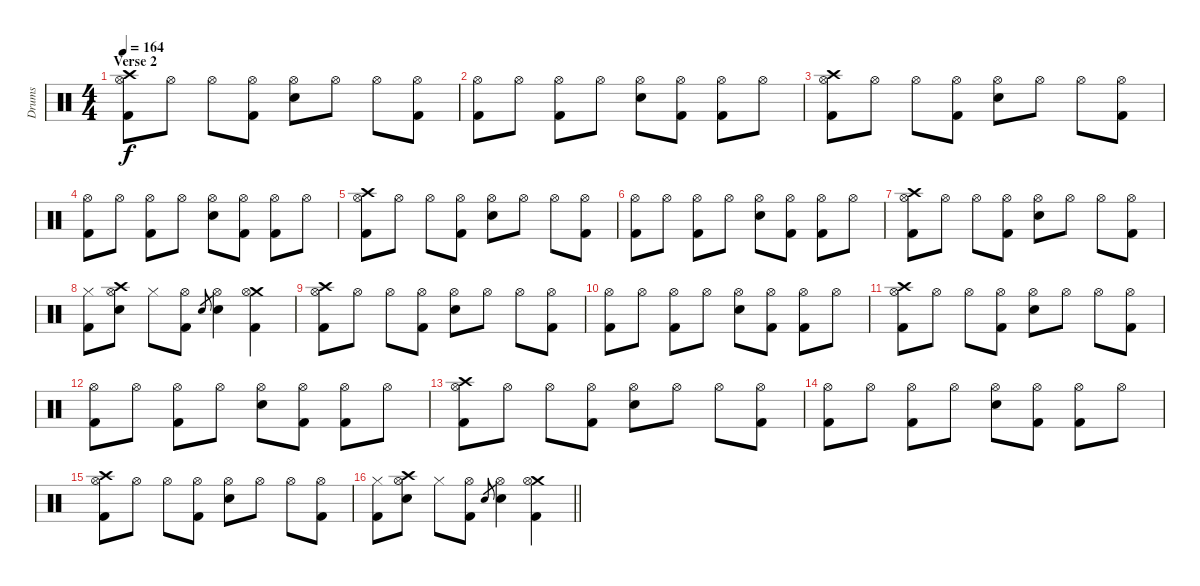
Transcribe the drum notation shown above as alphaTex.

\track ("Drums" "Drums") {instrument percussion}
\staff {score}
\articulation defaults
\ts (4 4)
\section ("" "Verse 2")
\tempo 164
\clef neutral
\ks c
("Crash high (hit)" "Hi-Hat (open)" "Kick (hit) 2").8{dy f} "Hi-Hat (open)".8 "Hi-Hat (open)".8 ("Hi-Hat (open)" "Kick (hit) 2").8 ("Hi-Hat (open)" "Snare (hit) 2").8 "Hi-Hat (open)".8 "Hi-Hat (open)".8 ("Hi-Hat (open)" "Kick (hit) 2").8 |
("Hi-Hat (open)" "Kick (hit) 2").8 "Hi-Hat (open)".8 ("Hi-Hat (open)" "Kick (hit) 2").8 "Hi-Hat (open)".8 ("Hi-Hat (open)" "Snare (hit) 2").8 ("Hi-Hat (open)" "Kick (hit) 2").8 ("Hi-Hat (open)" "Kick (hit) 2").8 "Hi-Hat (open)".8 |
("Crash high (hit)" "Hi-Hat (open)" "Kick (hit) 2").8 "Hi-Hat (open)".8 "Hi-Hat (open)".8 ("Hi-Hat (open)" "Kick (hit) 2").8 ("Hi-Hat (open)" "Snare (hit) 2").8 "Hi-Hat (open)".8 "Hi-Hat (open)".8 ("Hi-Hat (open)" "Kick (hit) 2").8 |
("Hi-Hat (open)" "Kick (hit) 2").8 "Hi-Hat (open)".8 ("Hi-Hat (open)" "Kick (hit) 2").8 "Hi-Hat (open)".8 ("Hi-Hat (open)" "Snare (hit) 2").8 ("Hi-Hat (open)" "Kick (hit) 2").8 ("Hi-Hat (open)" "Kick (hit) 2").8 "Hi-Hat (open)".8 |
("Crash high (hit)" "Hi-Hat (open)" "Kick (hit) 2").8 "Hi-Hat (open)".8 "Hi-Hat (open)".8 ("Hi-Hat (open)" "Kick (hit) 2").8 ("Hi-Hat (open)" "Snare (hit) 2").8 "Hi-Hat (open)".8 "Hi-Hat (open)".8 ("Hi-Hat (open)" "Kick (hit) 2").8 |
("Hi-Hat (open)" "Kick (hit) 2").8 "Hi-Hat (open)".8 ("Hi-Hat (open)" "Kick (hit) 2").8 "Hi-Hat (open)".8 ("Hi-Hat (open)" "Snare (hit) 2").8 ("Hi-Hat (open)" "Kick (hit) 2").8 ("Hi-Hat (open)" "Kick (hit) 2").8 "Hi-Hat (open)".8 |
("Crash high (hit)" "Hi-Hat (open)" "Kick (hit) 2").8 "Hi-Hat (open)".8 "Hi-Hat (open)".8 ("Hi-Hat (open)" "Kick (hit) 2").8 ("Hi-Hat (open)" "Snare (hit) 2").8 "Hi-Hat (open)".8 "Hi-Hat (open)".8 ("Hi-Hat (open)" "Kick (hit) 2").8 |
("Hi-Hat (closed)" "Kick (hit) 2").8 ("Crash high (hit)" "Hi-Hat (open)" "Snare (hit) 2").8 "Hi-Hat (closed)".8 ("Hi-Hat (open)" "Kick (hit) 2").8 "Snare (hit) 2".8{gr} ("Hi-Hat (open)" "Snare (hit) 2").4 ("Crash medium (hit)" "Hi-Hat (open)" "Kick (hit) 2").4 |
("Crash high (hit)" "Hi-Hat (open)" "Kick (hit) 2").8 "Hi-Hat (open)".8 "Hi-Hat (open)".8 ("Hi-Hat (open)" "Kick (hit) 2").8 ("Hi-Hat (open)" "Snare (hit) 2").8 "Hi-Hat (open)".8 "Hi-Hat (open)".8 ("Hi-Hat (open)" "Kick (hit) 2").8 |
("Hi-Hat (open)" "Kick (hit) 2").8 "Hi-Hat (open)".8 ("Hi-Hat (open)" "Kick (hit) 2").8 "Hi-Hat (open)".8 ("Hi-Hat (open)" "Snare (hit) 2").8 ("Hi-Hat (open)" "Kick (hit) 2").8 ("Hi-Hat (open)" "Kick (hit) 2").8 "Hi-Hat (open)".8 |
("Crash high (hit)" "Hi-Hat (open)" "Kick (hit) 2").8 "Hi-Hat (open)".8 "Hi-Hat (open)".8 ("Hi-Hat (open)" "Kick (hit) 2").8 ("Hi-Hat (open)" "Snare (hit) 2").8 "Hi-Hat (open)".8 "Hi-Hat (open)".8 ("Hi-Hat (open)" "Kick (hit) 2").8 |
("Hi-Hat (open)" "Kick (hit) 2").8 "Hi-Hat (open)".8 ("Hi-Hat (open)" "Kick (hit) 2").8 "Hi-Hat (open)".8 ("Hi-Hat (open)" "Snare (hit) 2").8 ("Hi-Hat (open)" "Kick (hit) 2").8 ("Hi-Hat (open)" "Kick (hit) 2").8 "Hi-Hat (open)".8 |
("Crash high (hit)" "Hi-Hat (open)" "Kick (hit) 2").8 "Hi-Hat (open)".8 "Hi-Hat (open)".8 ("Hi-Hat (open)" "Kick (hit) 2").8 ("Hi-Hat (open)" "Snare (hit) 2").8 "Hi-Hat (open)".8 "Hi-Hat (open)".8 ("Hi-Hat (open)" "Kick (hit) 2").8 |
("Hi-Hat (open)" "Kick (hit) 2").8 "Hi-Hat (open)".8 ("Hi-Hat (open)" "Kick (hit) 2").8 "Hi-Hat (open)".8 ("Hi-Hat (open)" "Snare (hit) 2").8 ("Hi-Hat (open)" "Kick (hit) 2").8 ("Hi-Hat (open)" "Kick (hit) 2").8 "Hi-Hat (open)".8 |
("Crash high (hit)" "Hi-Hat (open)" "Kick (hit) 2").8 "Hi-Hat (open)".8 "Hi-Hat (open)".8 ("Hi-Hat (open)" "Kick (hit) 2").8 ("Hi-Hat (open)" "Snare (hit) 2").8 "Hi-Hat (open)".8 "Hi-Hat (open)".8 ("Hi-Hat (open)" "Kick (hit) 2").8 |
\barLineRight lightlight
("Hi-Hat (closed)" "Kick (hit) 2").8 ("Crash high (hit)" "Hi-Hat (open)" "Snare (hit) 2").8 "Hi-Hat (closed)".8 ("Hi-Hat (open)" "Kick (hit) 2").8 "Snare (hit) 2".8{gr} ("Hi-Hat (open)" "Snare (hit) 2").4 ("Crash medium (hit)" "Hi-Hat (open)" "Kick (hit) 2").4
